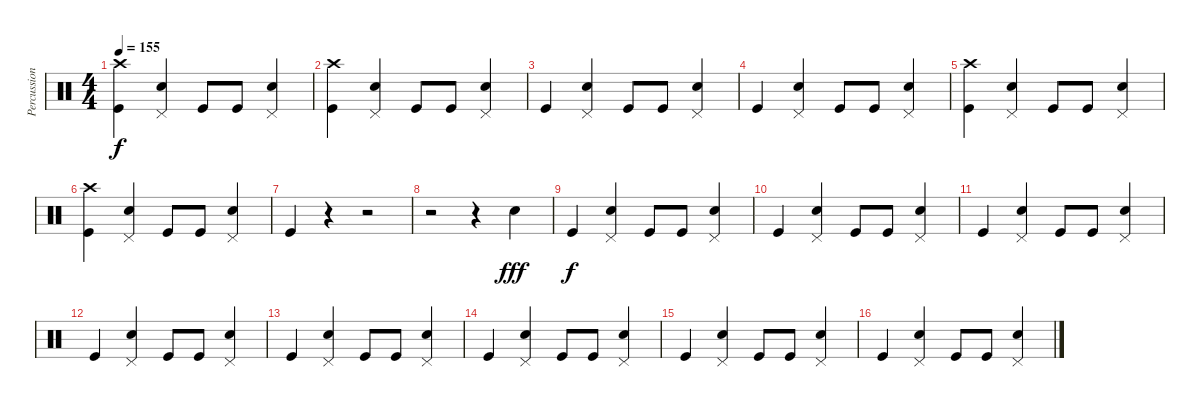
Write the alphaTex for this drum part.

\track ("Percussion" "Percussion") {instrument percussion}
\staff {score}
\articulation defaults
\ts (4 4)
\tempo 155
\clef neutral
\ks c
("Kick (hit)" "Crash high (hit)").4{dy f} ("Snare (hit) 2" "Pedal Hi-Hat (hit)").4 "Kick (hit)".8 "Kick (hit)".8 ("Snare (hit) 2" "Pedal Hi-Hat (hit)").4 |
("Kick (hit)" "Crash high (hit)").4 ("Snare (hit) 2" "Pedal Hi-Hat (hit)").4 "Kick (hit)".8 "Kick (hit)".8 ("Snare (hit) 2" "Pedal Hi-Hat (hit)").4 |
"Kick (hit)".4 ("Snare (hit) 2" "Pedal Hi-Hat (hit)").4 "Kick (hit)".8 "Kick (hit)".8 ("Snare (hit) 2" "Pedal Hi-Hat (hit)").4 |
"Kick (hit)".4 ("Snare (hit) 2" "Pedal Hi-Hat (hit)").4 "Kick (hit)".8 "Kick (hit)".8 ("Snare (hit) 2" "Pedal Hi-Hat (hit)").4 |
("Kick (hit)" "Crash high (hit)").4 ("Snare (hit) 2" "Pedal Hi-Hat (hit)").4 "Kick (hit)".8 "Kick (hit)".8 ("Snare (hit) 2" "Pedal Hi-Hat (hit)").4 |
("Kick (hit)" "Crash high (hit)").4 ("Snare (hit) 2" "Pedal Hi-Hat (hit)").4 "Kick (hit)".8 "Kick (hit)".8 ("Snare (hit) 2" "Pedal Hi-Hat (hit)").4 |
"Kick (hit)".4 r.4 r.2 |
r.2 r.4 "Snare (hit) 2".4{dy fff} |
"Kick (hit)".4{dy f} ("Snare (hit) 2" "Pedal Hi-Hat (hit)").4 "Kick (hit)".8 "Kick (hit)".8 ("Snare (hit) 2" "Pedal Hi-Hat (hit)").4 |
"Kick (hit)".4 ("Snare (hit) 2" "Pedal Hi-Hat (hit)").4 "Kick (hit)".8 "Kick (hit)".8 ("Snare (hit) 2" "Pedal Hi-Hat (hit)").4 |
"Kick (hit)".4 ("Snare (hit) 2" "Pedal Hi-Hat (hit)").4 "Kick (hit)".8 "Kick (hit)".8 ("Snare (hit) 2" "Pedal Hi-Hat (hit)").4 |
"Kick (hit)".4 ("Snare (hit) 2" "Pedal Hi-Hat (hit)").4 "Kick (hit)".8 "Kick (hit)".8 ("Snare (hit) 2" "Pedal Hi-Hat (hit)").4 |
"Kick (hit)".4 ("Snare (hit) 2" "Pedal Hi-Hat (hit)").4 "Kick (hit)".8 "Kick (hit)".8 ("Snare (hit) 2" "Pedal Hi-Hat (hit)").4 |
"Kick (hit)".4 ("Snare (hit) 2" "Pedal Hi-Hat (hit)").4 "Kick (hit)".8 "Kick (hit)".8 ("Snare (hit) 2" "Pedal Hi-Hat (hit)").4 |
"Kick (hit)".4 ("Snare (hit) 2" "Pedal Hi-Hat (hit)").4 "Kick (hit)".8 "Kick (hit)".8 ("Snare (hit) 2" "Pedal Hi-Hat (hit)").4 |
"Kick (hit)".4 ("Snare (hit) 2" "Pedal Hi-Hat (hit)").4 "Kick (hit)".8 "Kick (hit)".8 ("Snare (hit) 2" "Pedal Hi-Hat (hit)").4
